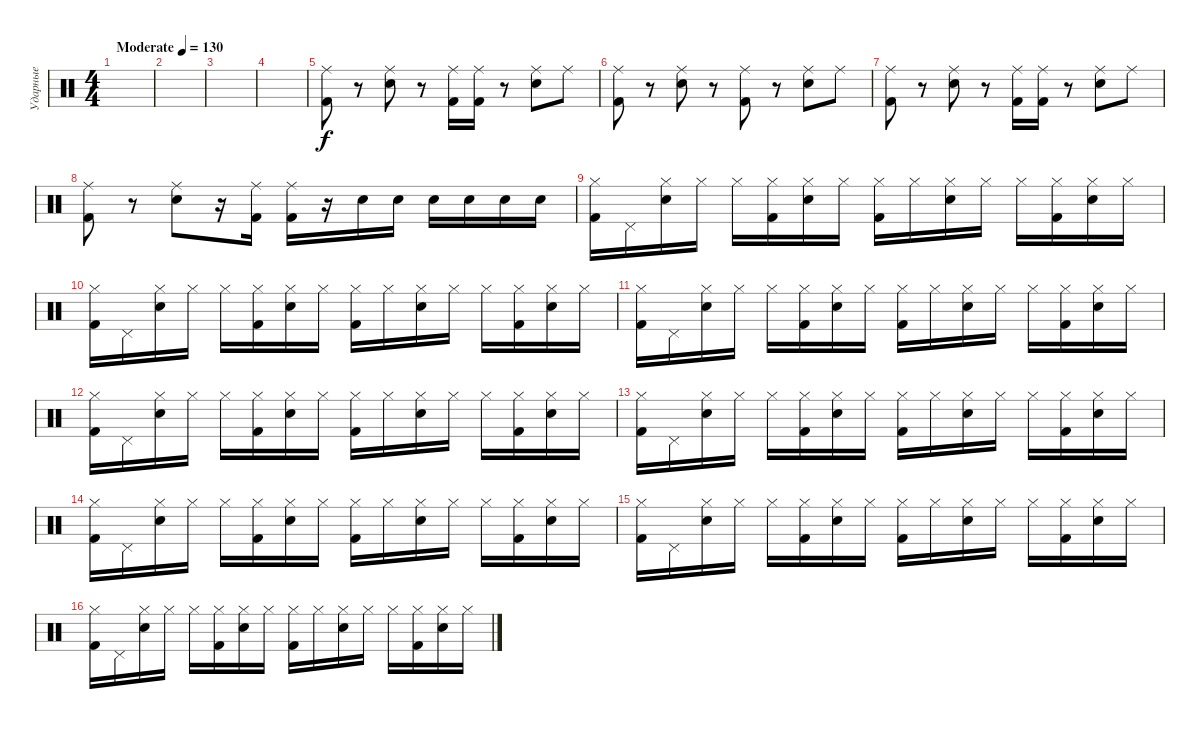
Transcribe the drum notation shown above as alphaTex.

\track ("Ударные" "Ударные") {instrument percussion}
\staff {score}
\articulation defaults
\ts (4 4)
\tempo (130 "Moderate")
\clef neutral
\ks c
|
|
|
|
("Kick (hit) 2" "Ride (middle)").8 r.8 ("Electric Snare (hit)" "Ride (middle)").8 r.8 ("Kick (hit) 2" "Ride (middle)").16 ("Kick (hit) 2" "Ride (middle)").16 r.8 ("Electric Snare (hit)" "Ride (middle)").8 "Ride (middle)".8 |
("Kick (hit) 2" "Ride (middle)").8 r.8 ("Electric Snare (hit)" "Ride (middle)").8 r.8 ("Kick (hit) 2" "Ride (middle)").8 r.8 ("Electric Snare (hit)" "Ride (middle)").8 "Ride (middle)".8 |
("Kick (hit) 2" "Ride (middle)").8 r.8 ("Electric Snare (hit)" "Ride (middle)").8 r.8 ("Kick (hit) 2" "Ride (middle)").16 ("Kick (hit) 2" "Ride (middle)").16 r.8 ("Electric Snare (hit)" "Ride (middle)").8 "Ride (middle)".8 |
("Kick (hit) 2" "Ride (middle)").8 r.8 ("Electric Snare (hit)" "Ride (middle)").8 r.16 ("Kick (hit) 2" "Ride (middle)").16 ("Kick (hit) 2" "Ride (middle)").16 r.16 "Electric Snare (hit)".16 "Electric Snare (hit)".16 "Electric Snare (hit)".16 "Electric Snare (hit)".16 "Electric Snare (hit)".16 "Electric Snare (hit)".16 |
("Kick (hit) 2" "Hi-Hat (closed)").16 "Pedal Hi-Hat (hit)".16 ("Electric Snare (hit)" "Hi-Hat (closed)").16 "Hi-Hat (closed)".16 "Hi-Hat (closed)".16 ("Kick (hit) 2" "Hi-Hat (closed)").16 ("Electric Snare (hit)" "Hi-Hat (closed)").16 "Hi-Hat (closed)".16 ("Kick (hit) 2" "Hi-Hat (closed)").16 "Hi-Hat (closed)".16 ("Electric Snare (hit)" "Hi-Hat (closed)").16 "Hi-Hat (closed)".16 "Hi-Hat (closed)".16 ("Kick (hit) 2" "Hi-Hat (closed)").16 ("Electric Snare (hit)" "Hi-Hat (closed)").16 "Hi-Hat (closed)".16 |
("Kick (hit) 2" "Hi-Hat (closed)").16 "Pedal Hi-Hat (hit)".16 ("Electric Snare (hit)" "Hi-Hat (closed)").16 "Hi-Hat (closed)".16 "Hi-Hat (closed)".16 ("Kick (hit) 2" "Hi-Hat (closed)").16 ("Electric Snare (hit)" "Hi-Hat (closed)").16 "Hi-Hat (closed)".16 ("Kick (hit) 2" "Hi-Hat (closed)").16 "Hi-Hat (closed)".16 ("Electric Snare (hit)" "Hi-Hat (closed)").16 "Hi-Hat (closed)".16 "Hi-Hat (closed)".16 ("Kick (hit) 2" "Hi-Hat (closed)").16 ("Electric Snare (hit)" "Hi-Hat (closed)").16 "Hi-Hat (closed)".16 |
("Kick (hit) 2" "Hi-Hat (closed)").16 "Pedal Hi-Hat (hit)".16 ("Electric Snare (hit)" "Hi-Hat (closed)").16 "Hi-Hat (closed)".16 "Hi-Hat (closed)".16 ("Kick (hit) 2" "Hi-Hat (closed)").16 ("Electric Snare (hit)" "Hi-Hat (closed)").16 "Hi-Hat (closed)".16 ("Kick (hit) 2" "Hi-Hat (closed)").16 "Hi-Hat (closed)".16 ("Electric Snare (hit)" "Hi-Hat (closed)").16 "Hi-Hat (closed)".16 "Hi-Hat (closed)".16 ("Kick (hit) 2" "Hi-Hat (closed)").16 ("Electric Snare (hit)" "Hi-Hat (closed)").16 "Hi-Hat (closed)".16 |
("Kick (hit) 2" "Hi-Hat (closed)").16 "Pedal Hi-Hat (hit)".16 ("Electric Snare (hit)" "Hi-Hat (closed)").16 "Hi-Hat (closed)".16 "Hi-Hat (closed)".16 ("Kick (hit) 2" "Hi-Hat (closed)").16 ("Electric Snare (hit)" "Hi-Hat (closed)").16 "Hi-Hat (closed)".16 ("Kick (hit) 2" "Hi-Hat (closed)").16 "Hi-Hat (closed)".16 ("Electric Snare (hit)" "Hi-Hat (closed)").16 "Hi-Hat (closed)".16 "Hi-Hat (closed)".16 ("Kick (hit) 2" "Hi-Hat (closed)").16 ("Electric Snare (hit)" "Hi-Hat (closed)").16 "Hi-Hat (closed)".16 |
("Kick (hit) 2" "Hi-Hat (closed)").16 "Pedal Hi-Hat (hit)".16 ("Electric Snare (hit)" "Hi-Hat (closed)").16 "Hi-Hat (closed)".16 "Hi-Hat (closed)".16 ("Kick (hit) 2" "Hi-Hat (closed)").16 ("Electric Snare (hit)" "Hi-Hat (closed)").16 "Hi-Hat (closed)".16 ("Kick (hit) 2" "Hi-Hat (closed)").16 "Hi-Hat (closed)".16 ("Electric Snare (hit)" "Hi-Hat (closed)").16 "Hi-Hat (closed)".16 "Hi-Hat (closed)".16 ("Kick (hit) 2" "Hi-Hat (closed)").16 ("Electric Snare (hit)" "Hi-Hat (closed)").16 "Hi-Hat (closed)".16 |
("Kick (hit) 2" "Hi-Hat (closed)").16 "Pedal Hi-Hat (hit)".16 ("Electric Snare (hit)" "Hi-Hat (closed)").16 "Hi-Hat (closed)".16 "Hi-Hat (closed)".16 ("Kick (hit) 2" "Hi-Hat (closed)").16 ("Electric Snare (hit)" "Hi-Hat (closed)").16 "Hi-Hat (closed)".16 ("Kick (hit) 2" "Hi-Hat (closed)").16 "Hi-Hat (closed)".16 ("Electric Snare (hit)" "Hi-Hat (closed)").16 "Hi-Hat (closed)".16 "Hi-Hat (closed)".16 ("Kick (hit) 2" "Hi-Hat (closed)").16 ("Electric Snare (hit)" "Hi-Hat (closed)").16 "Hi-Hat (closed)".16 |
("Kick (hit) 2" "Hi-Hat (closed)").16 "Pedal Hi-Hat (hit)".16 ("Electric Snare (hit)" "Hi-Hat (closed)").16 "Hi-Hat (closed)".16 "Hi-Hat (closed)".16 ("Kick (hit) 2" "Hi-Hat (closed)").16 ("Electric Snare (hit)" "Hi-Hat (closed)").16 "Hi-Hat (closed)".16 ("Kick (hit) 2" "Hi-Hat (closed)").16 "Hi-Hat (closed)".16 ("Electric Snare (hit)" "Hi-Hat (closed)").16 "Hi-Hat (closed)".16 "Hi-Hat (closed)".16 ("Kick (hit) 2" "Hi-Hat (closed)").16 ("Electric Snare (hit)" "Hi-Hat (closed)").16 "Hi-Hat (closed)".16 |
("Kick (hit) 2" "Hi-Hat (closed)").16 "Pedal Hi-Hat (hit)".16 ("Electric Snare (hit)" "Hi-Hat (closed)").16 "Hi-Hat (closed)".16 "Hi-Hat (closed)".16 ("Kick (hit) 2" "Hi-Hat (closed)").16 ("Electric Snare (hit)" "Hi-Hat (closed)").16 "Hi-Hat (closed)".16 ("Kick (hit) 2" "Hi-Hat (closed)").16 "Hi-Hat (closed)".16 ("Electric Snare (hit)" "Hi-Hat (closed)").16 "Hi-Hat (closed)".16 "Hi-Hat (closed)".16 ("Kick (hit) 2" "Hi-Hat (closed)").16 ("Electric Snare (hit)" "Hi-Hat (closed)").16 "Hi-Hat (closed)".16
